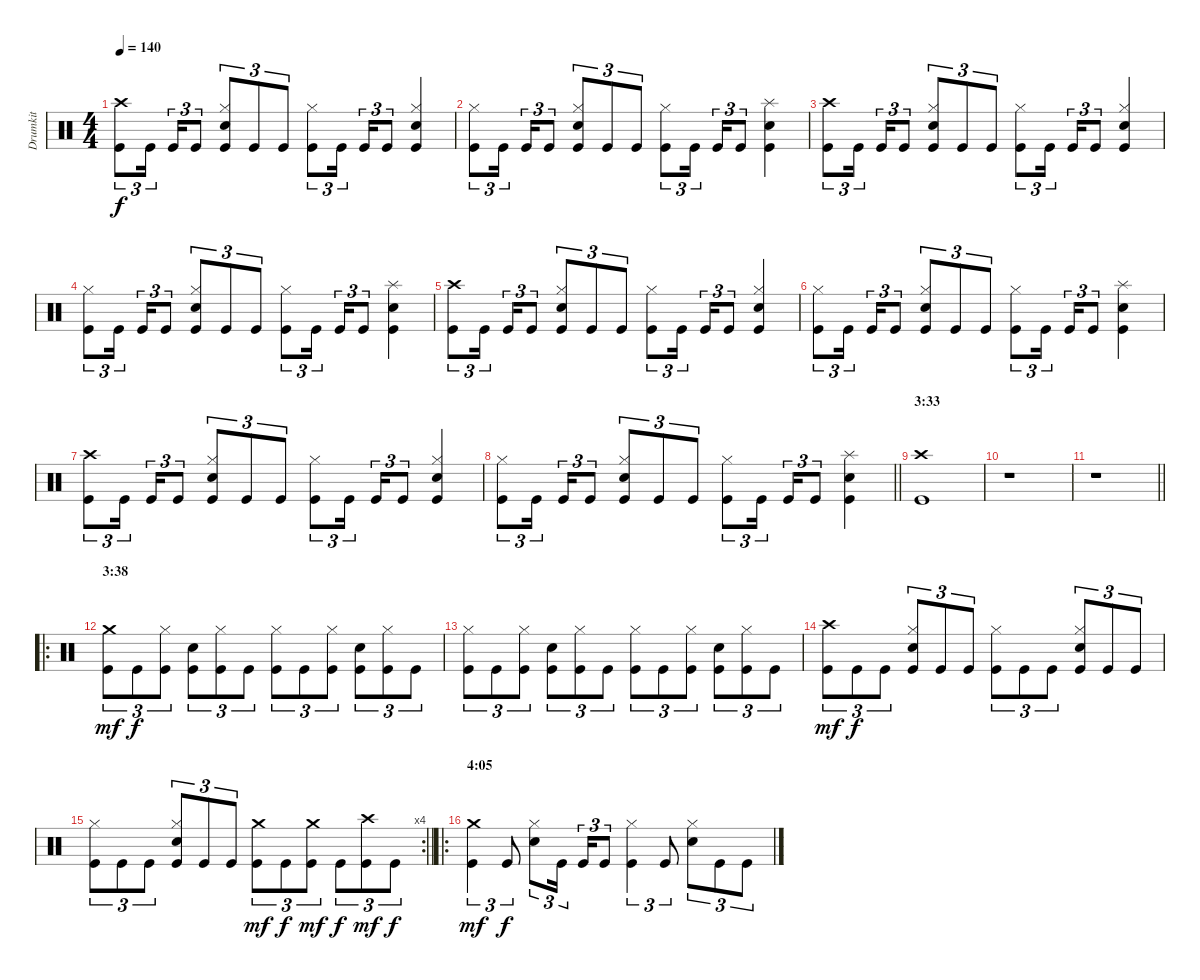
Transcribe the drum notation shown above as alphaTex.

\track ("Drumkit" "Drumkit") {instrument percussion}
\staff {score}
\articulation defaults
\ts (4 4)
\tempo 140
\clef neutral
\ks c
("Crash high (hit)" "Kick (hit)").8{tu (3 2) dy f} "Kick (hit)".16{tu (3 2) beam splitsecondary} "Kick (hit)".16{tu (3 2)} "Kick (hit)".8{tu (3 2)} ("Hi-Hat (closed)" "Snare (hit) 2" "Kick (hit)").8{tu (3 2)} "Kick (hit)".8{tu (3 2)} "Kick (hit)".8{tu (3 2)} ("Hi-Hat (closed)" "Kick (hit)").8{tu (3 2)} "Kick (hit)".16{tu (3 2) beam splitsecondary} "Kick (hit)".16{tu (3 2)} "Kick (hit)".8{tu (3 2)} ("Hi-Hat (closed)" "Snare (hit) 2" "Kick (hit)").4 |
("Hi-Hat (closed)" "Kick (hit)").8{tu (3 2)} "Kick (hit)".16{tu (3 2) beam splitsecondary} "Kick (hit)".16{tu (3 2)} "Kick (hit)".8{tu (3 2)} ("Hi-Hat (closed)" "Snare (hit) 2" "Kick (hit)").8{tu (3 2)} "Kick (hit)".8{tu (3 2)} "Kick (hit)".8{tu (3 2)} ("Hi-Hat (closed)" "Kick (hit)").8{tu (3 2)} "Kick (hit)".16{tu (3 2) beam splitsecondary} "Kick (hit)".16{tu (3 2)} "Kick (hit)".8{tu (3 2)} ("Splash (hit)" "Snare (hit) 2" "Kick (hit)").4 |
("Crash high (hit)" "Kick (hit)").8{tu (3 2)} "Kick (hit)".16{tu (3 2) beam splitsecondary} "Kick (hit)".16{tu (3 2)} "Kick (hit)".8{tu (3 2)} ("Hi-Hat (closed)" "Snare (hit) 2" "Kick (hit)").8{tu (3 2)} "Kick (hit)".8{tu (3 2)} "Kick (hit)".8{tu (3 2)} ("Hi-Hat (closed)" "Kick (hit)").8{tu (3 2)} "Kick (hit)".16{tu (3 2) beam splitsecondary} "Kick (hit)".16{tu (3 2)} "Kick (hit)".8{tu (3 2)} ("Hi-Hat (closed)" "Snare (hit) 2" "Kick (hit)").4 |
("Hi-Hat (closed)" "Kick (hit)").8{tu (3 2)} "Kick (hit)".16{tu (3 2) beam splitsecondary} "Kick (hit)".16{tu (3 2)} "Kick (hit)".8{tu (3 2)} ("Hi-Hat (closed)" "Snare (hit) 2" "Kick (hit)").8{tu (3 2)} "Kick (hit)".8{tu (3 2)} "Kick (hit)".8{tu (3 2)} ("Hi-Hat (closed)" "Kick (hit)").8{tu (3 2)} "Kick (hit)".16{tu (3 2) beam splitsecondary} "Kick (hit)".16{tu (3 2)} "Kick (hit)".8{tu (3 2)} ("Splash (hit)" "Snare (hit) 2" "Kick (hit)").4 |
("Crash high (hit)" "Kick (hit)").8{tu (3 2)} "Kick (hit)".16{tu (3 2) beam splitsecondary} "Kick (hit)".16{tu (3 2)} "Kick (hit)".8{tu (3 2)} ("Hi-Hat (closed)" "Snare (hit) 2" "Kick (hit)").8{tu (3 2)} "Kick (hit)".8{tu (3 2)} "Kick (hit)".8{tu (3 2)} ("Hi-Hat (closed)" "Kick (hit)").8{tu (3 2)} "Kick (hit)".16{tu (3 2) beam splitsecondary} "Kick (hit)".16{tu (3 2)} "Kick (hit)".8{tu (3 2)} ("Hi-Hat (closed)" "Snare (hit) 2" "Kick (hit)").4 |
("Hi-Hat (closed)" "Kick (hit)").8{tu (3 2)} "Kick (hit)".16{tu (3 2) beam splitsecondary} "Kick (hit)".16{tu (3 2)} "Kick (hit)".8{tu (3 2)} ("Hi-Hat (closed)" "Snare (hit) 2" "Kick (hit)").8{tu (3 2)} "Kick (hit)".8{tu (3 2)} "Kick (hit)".8{tu (3 2)} ("Hi-Hat (closed)" "Kick (hit)").8{tu (3 2)} "Kick (hit)".16{tu (3 2) beam splitsecondary} "Kick (hit)".16{tu (3 2)} "Kick (hit)".8{tu (3 2)} ("Splash (hit)" "Snare (hit) 2" "Kick (hit)").4 |
("Crash high (hit)" "Kick (hit)").8{tu (3 2)} "Kick (hit)".16{tu (3 2) beam splitsecondary} "Kick (hit)".16{tu (3 2)} "Kick (hit)".8{tu (3 2)} ("Hi-Hat (closed)" "Snare (hit) 2" "Kick (hit)").8{tu (3 2)} "Kick (hit)".8{tu (3 2)} "Kick (hit)".8{tu (3 2)} ("Hi-Hat (closed)" "Kick (hit)").8{tu (3 2)} "Kick (hit)".16{tu (3 2) beam splitsecondary} "Kick (hit)".16{tu (3 2)} "Kick (hit)".8{tu (3 2)} ("Hi-Hat (closed)" "Snare (hit) 2" "Kick (hit)").4 |
\barLineRight lightlight
("Hi-Hat (closed)" "Kick (hit)").8{tu (3 2)} "Kick (hit)".16{tu (3 2) beam splitsecondary} "Kick (hit)".16{tu (3 2)} "Kick (hit)".8{tu (3 2)} ("Hi-Hat (closed)" "Snare (hit) 2" "Kick (hit)").8{tu (3 2)} "Kick (hit)".8{tu (3 2)} "Kick (hit)".8{tu (3 2)} ("Hi-Hat (closed)" "Kick (hit)").8{tu (3 2)} "Kick (hit)".16{tu (3 2) beam splitsecondary} "Kick (hit)".16{tu (3 2)} "Kick (hit)".8{tu (3 2)} ("Splash (hit)" "Snare (hit) 2" "Kick (hit)").4 |
\section ("" "3:33")
("Crash high (hit)" "Kick (hit)").1 |
r.1 |
\barLineRight lightlight
r.1 |
\ro
\section ("" "3:38")
("Crash medium (hit)" "Kick (hit)").8{tu (3 2) dy mf} "Kick (hit)".8{tu (3 2) dy f} ("Hi-Hat (closed)" "Kick (hit)").8{tu (3 2)} ("Snare (hit) 2" "Kick (hit)").8{tu (3 2)} ("Hi-Hat (closed)" "Kick (hit)").8{tu (3 2)} "Kick (hit)".8{tu (3 2)} ("Hi-Hat (closed)" "Kick (hit)").8{tu (3 2)} "Kick (hit)".8{tu (3 2)} ("Hi-Hat (closed)" "Kick (hit)").8{tu (3 2)} ("Snare (hit) 2" "Kick (hit)").8{tu (3 2)} ("Hi-Hat (closed)" "Kick (hit)").8{tu (3 2)} "Kick (hit)".8{tu (3 2)} |
("Hi-Hat (closed)" "Kick (hit)").8{tu (3 2)} "Kick (hit)".8{tu (3 2)} ("Hi-Hat (closed)" "Kick (hit)").8{tu (3 2)} ("Snare (hit) 2" "Kick (hit)").8{tu (3 2)} ("Hi-Hat (closed)" "Kick (hit)").8{tu (3 2)} "Kick (hit)".8{tu (3 2)} ("Hi-Hat (closed)" "Kick (hit)").8{tu (3 2)} "Kick (hit)".8{tu (3 2)} ("Hi-Hat (closed)" "Kick (hit)").8{tu (3 2)} ("Snare (hit) 2" "Kick (hit)").8{tu (3 2)} ("Hi-Hat (closed)" "Kick (hit)").8{tu (3 2)} "Kick (hit)".8{tu (3 2)} |
("Crash high (hit)" "Kick (hit)").8{tu (3 2) dy mf} "Kick (hit)".8{tu (3 2) dy f} "Kick (hit)".8{tu (3 2)} ("Hi-Hat (closed)" "Snare (hit) 2" "Kick (hit)").8{tu (3 2)} "Kick (hit)".8{tu (3 2)} "Kick (hit)".8{tu (3 2)} ("Hi-Hat (closed)" "Kick (hit)").8{tu (3 2)} "Kick (hit)".8{tu (3 2)} "Kick (hit)".8{tu (3 2)} ("Hi-Hat (closed)" "Snare (hit) 2" "Kick (hit)").8{tu (3 2)} "Kick (hit)".8{tu (3 2)} "Kick (hit)".8{tu (3 2)} |
\rc 4
\barLineRight lightlight
("Hi-Hat (closed)" "Kick (hit)").8{tu (3 2)} "Kick (hit)".8{tu (3 2)} "Kick (hit)".8{tu (3 2)} ("Hi-Hat (closed)" "Snare (hit) 2" "Kick (hit)").8{tu (3 2)} "Kick (hit)".8{tu (3 2)} "Kick (hit)".8{tu (3 2)} ("Crash medium (hit)" "Kick (hit)").8{tu (3 2) dy mf} "Kick (hit)".8{tu (3 2) dy f} ("Crash medium (hit)" "Kick (hit)").8{tu (3 2) dy mf} "Kick (hit)".8{tu (3 2) dy f} ("Crash high (hit)" "Kick (hit)").8{tu (3 2) dy mf} "Kick (hit)".8{tu (3 2) dy f} |
\ro
\section ("" "4:05")
("Crash medium (hit)" "Kick (hit)").4{tu (3 2) dy mf} "Kick (hit)".8{tu (3 2) dy f} ("Hi-Hat (closed)" "Snare (hit) 2").8{tu (3 2)} "Kick (hit)".16{tu (3 2) beam splitsecondary} "Kick (hit)".16{tu (3 2)} "Kick (hit)".8{tu (3 2)} ("Hi-Hat (closed)" "Kick (hit)").4{tu (3 2)} "Kick (hit)".8{tu (3 2)} ("Hi-Hat (closed)" "Snare (hit) 2").8{tu (3 2)} "Kick (hit)".8{tu (3 2)} "Kick (hit)".8{tu (3 2)}
